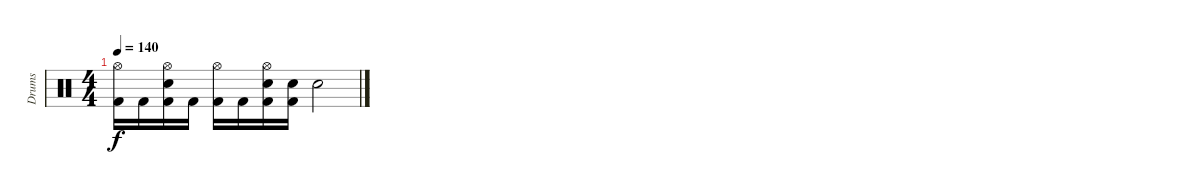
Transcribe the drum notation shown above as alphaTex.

\track ("Drums" "Drums") {instrument percussion}
\staff {score}
\articulation defaults
\ts (4 4)
\tempo 140
\clef neutral
\ks c
("Hi-Hat (open)" "Kick (hit) 2").16{dy f} "Kick (hit) 2".16 ("Hi-Hat (open)" "Electric Snare (hit)" "Kick (hit) 2").16 "Kick (hit) 2".16 ("Hi-Hat (open)" "Kick (hit) 2").16 "Kick (hit) 2".16 ("Hi-Hat (open)" "Electric Snare (hit)" "Kick (hit) 2").16 ("Electric Snare (hit)" "Kick (hit) 2").16 "Electric Snare (hit)".2
